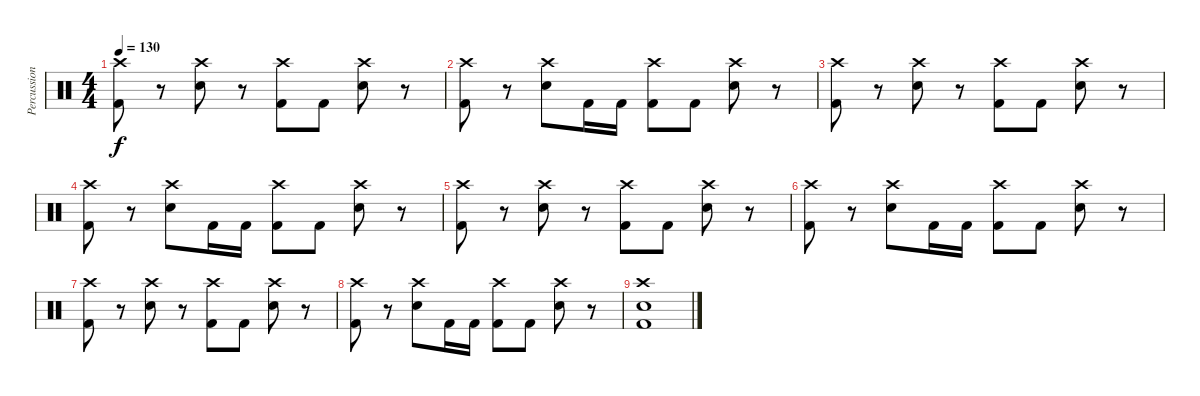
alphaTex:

\track ("Percussion" "Percussion") {instrument percussion}
\staff {score}
\articulation defaults
\ts (4 4)
\tempo 130
\clef neutral
\ks c
("Crash high (hit)" "Kick (hit) 2").8{dy f} r.8 ("Crash high (hit)" "Snare (hit) 2").8 r.8 ("Crash high (hit)" "Kick (hit) 2").8 "Kick (hit) 2".8 ("Crash high (hit)" "Snare (hit) 2").8 r.8 |
("Crash high (hit)" "Kick (hit) 2").8 r.8 ("Crash high (hit)" "Snare (hit) 2").8 "Kick (hit) 2".16 "Kick (hit) 2".16 ("Crash high (hit)" "Kick (hit) 2").8 "Kick (hit) 2".8 ("Crash high (hit)" "Snare (hit) 2").8 r.8 |
("Crash high (hit)" "Kick (hit) 2").8 r.8 ("Crash high (hit)" "Snare (hit) 2").8 r.8 ("Crash high (hit)" "Kick (hit) 2").8 "Kick (hit) 2".8 ("Crash high (hit)" "Snare (hit) 2").8 r.8 |
("Crash high (hit)" "Kick (hit) 2").8 r.8 ("Crash high (hit)" "Snare (hit) 2").8 "Kick (hit) 2".16 "Kick (hit) 2".16 ("Crash high (hit)" "Kick (hit) 2").8 "Kick (hit) 2".8 ("Crash high (hit)" "Snare (hit) 2").8 r.8 |
("Crash high (hit)" "Kick (hit) 2").8 r.8 ("Crash high (hit)" "Snare (hit) 2").8 r.8 ("Crash high (hit)" "Kick (hit) 2").8 "Kick (hit) 2".8 ("Crash high (hit)" "Snare (hit) 2").8 r.8 |
("Crash high (hit)" "Kick (hit) 2").8 r.8 ("Crash high (hit)" "Snare (hit) 2").8 "Kick (hit) 2".16 "Kick (hit) 2".16 ("Crash high (hit)" "Kick (hit) 2").8 "Kick (hit) 2".8 ("Crash high (hit)" "Snare (hit) 2").8 r.8 |
("Crash high (hit)" "Kick (hit) 2").8 r.8 ("Crash high (hit)" "Snare (hit) 2").8 r.8 ("Crash high (hit)" "Kick (hit) 2").8 "Kick (hit) 2".8 ("Crash high (hit)" "Snare (hit) 2").8 r.8 |
("Crash high (hit)" "Kick (hit) 2").8 r.8 ("Crash high (hit)" "Snare (hit) 2").8 "Kick (hit) 2".16 "Kick (hit) 2".16 ("Crash high (hit)" "Kick (hit) 2").8 "Kick (hit) 2".8 ("Crash high (hit)" "Snare (hit) 2").8 r.8 |
("Crash high (hit)" "Snare (hit) 2" "Kick (hit) 2").1
